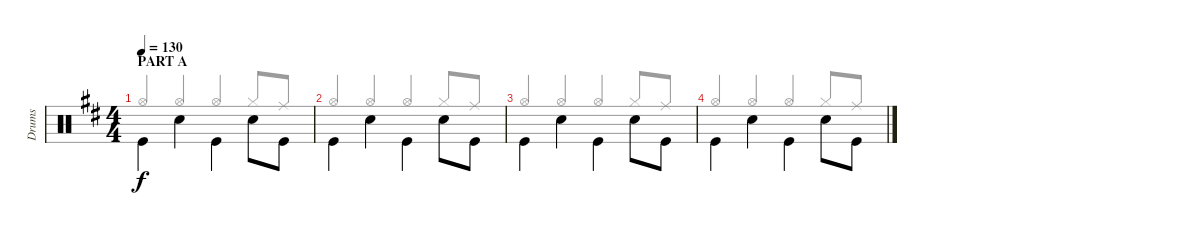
\track ("Drums" "Drums") {instrument percussion}
\staff {score}
\articulation defaults
\voice
\ts (4 4)
\section ("" "PART A")
\tempo 130
\clef neutral
\ks d "Kick (hit)".4{dy f beam Down} "Snare (hit) 2".4{beam Down} "Kick (hit)".4{beam Down} "Snare (hit) 2".8{beam Down} "Kick (hit)".8{beam Down}
|
"Kick (hit)".4{beam Down} "Snare (hit) 2".4{beam Down} "Kick (hit)".4{beam Down} "Snare (hit) 2".8{beam Down} "Kick (hit)".8{beam Down} |
"Kick (hit)".4{beam Down} "Snare (hit) 2".4{beam Down} "Kick (hit)".4{beam Down} "Snare (hit) 2".8{beam Down} "Kick (hit)".8{beam Down} |
"Kick (hit)".4{beam Down} "Snare (hit) 2".4{beam Down} "Kick (hit)".4{beam Down} "Snare (hit) 2".8{beam Down} "Kick (hit)".8{beam Down}
\voice
\clef neutral
\ottava regular
\simile none
\ks d "Hi-Hat (open)".4{dy f beam Up} "Hi-Hat (open)".4{beam Up} "Hi-Hat (open)".4{beam Up} "Hi-Hat (closed)".8{beam Up} "Ride (middle)".8{beam Up}
|
"Hi-Hat (open)".4{beam Up} "Hi-Hat (open)".4{beam Up} "Hi-Hat (open)".4{beam Up} "Hi-Hat (closed)".8{beam Up} "Ride (middle)".8{beam Up} |
"Hi-Hat (open)".4{beam Up} "Hi-Hat (open)".4{beam Up} "Hi-Hat (open)".4{beam Up} "Hi-Hat (closed)".8{beam Up} "Ride (middle)".8{beam Up} |
"Hi-Hat (open)".4{beam Up} "Hi-Hat (open)".4{beam Up} "Hi-Hat (open)".4{beam Up} "Hi-Hat (closed)".8{beam Up} "Ride (middle)".8{beam Up}
